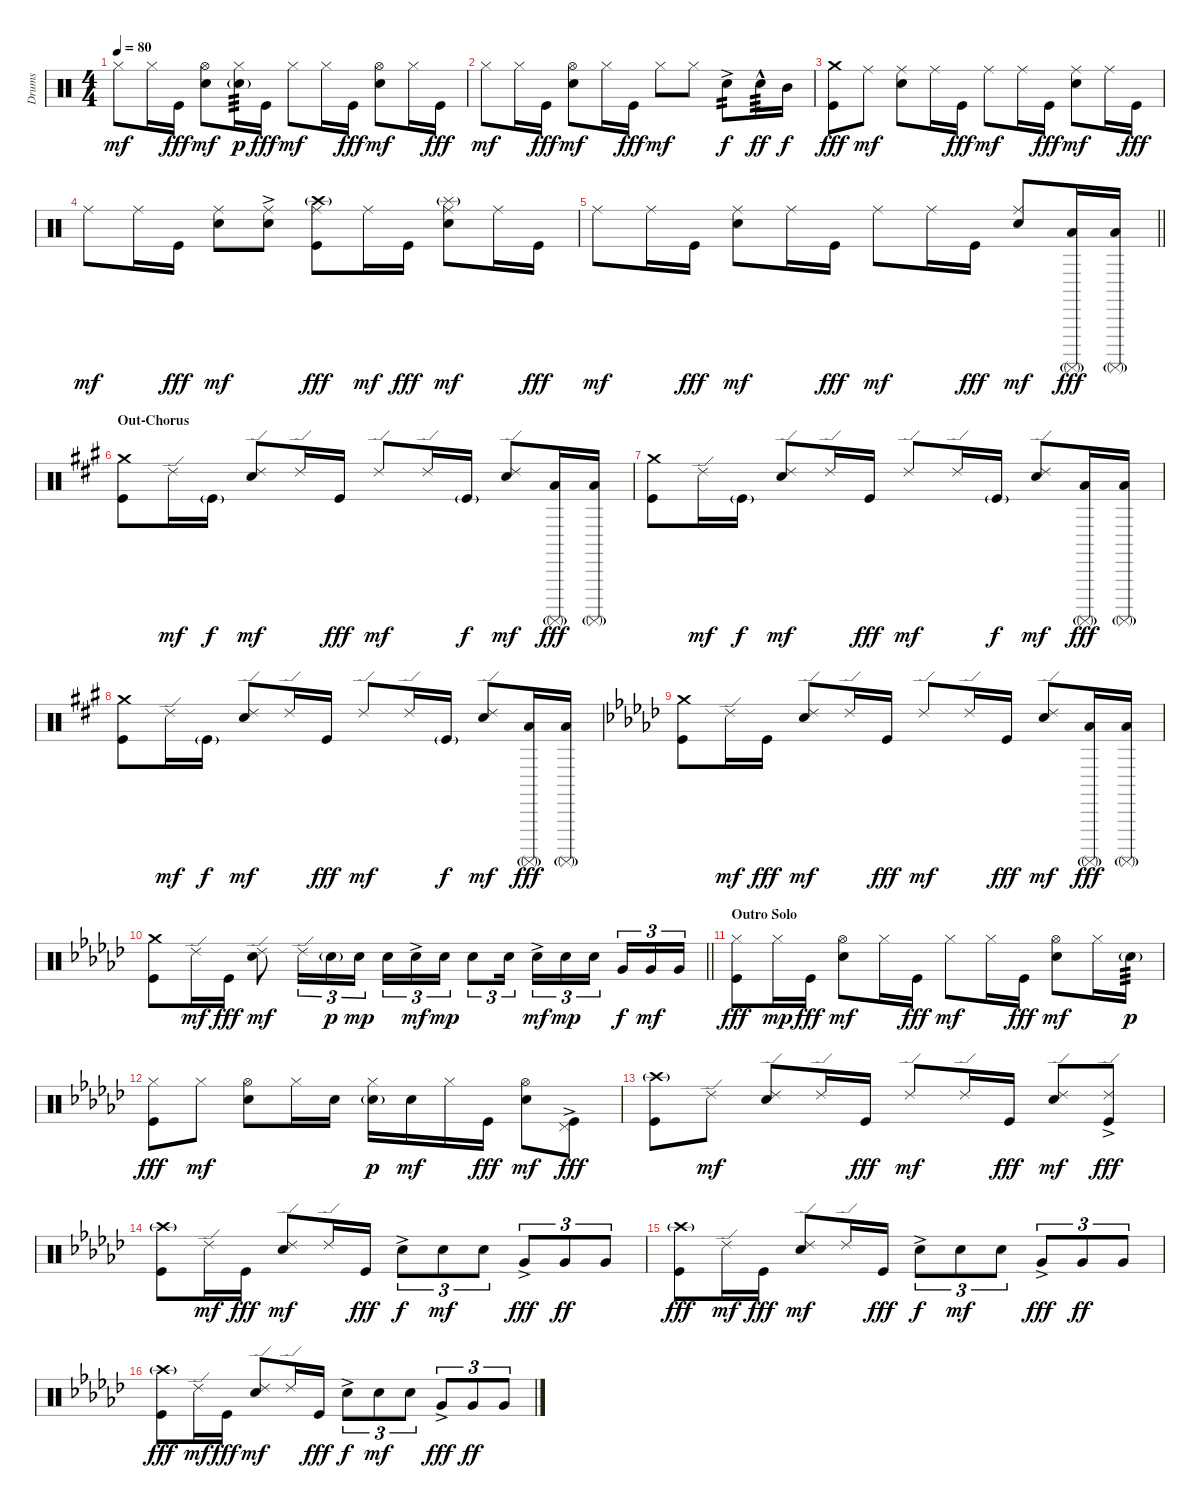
\track ("Drums" "Drums") {instrument percussion}
\staff {score}
\articulation defaults
\ts (4 4)
\tempo 80
\clef neutral
\ks c "Hi-Hat (closed)".8{dy mf} "Hi-Hat (closed)".16 "Kick (hit)".16{dy fff}
("Hi-Hat (open)" "Electric Snare (hit)").8{dy mf} ("Hi-Hat (closed)" "Electric Snare (hit)"{g}).16{tp 3 dy p} "Kick (hit)".16{dy fff} "Hi-Hat (closed)".8{dy mf} "Hi-Hat (closed)".16 "Kick (hit)".16{dy fff} ("Hi-Hat (open)" "Electric Snare (hit)").8{dy mf} "Hi-Hat (closed)".16 "Kick (hit)".16{dy fff} |
"Hi-Hat (closed)".8{dy mf} "Hi-Hat (closed)".16 "Kick (hit)".16{dy fff} ("Hi-Hat (open)" "Electric Snare (hit)").8{dy mf} "Hi-Hat (closed)".16 "Kick (hit)".16{dy fff} "Hi-Hat (closed)".8{dy mf} "Hi-Hat (closed)".8 "Electric Snare (hit)"{ac}.8{tp 2 dy f} "Electric Snare (hit)"{hac}.16{tp 3 dy ff} "Mid Tom (hit)".16{dy f} |
("Crash medium (hit)" "Kick (hit)").8{dy fff} "Ride (middle)".8{dy mf} ("Ride (middle)" "Electric Snare (hit)").8 "Ride (middle)".16 "Kick (hit)".16{dy fff} "Ride (middle)".8{dy mf} "Ride (middle)".16 "Kick (hit)".16{dy fff} ("Ride (middle)" "Electric Snare (hit)").8{dy mf} "Ride (middle)".16 "Kick (hit)".16{dy fff} |
"Ride (middle)".8{dy mf} "Ride (middle)".16 "Kick (hit)".16{dy fff} ("Ride (middle)" "Electric Snare (hit)").8{dy mf} ("Ride (middle)" "Electric Snare (hit)"{ac}).8 ("Ride (middle)" "Crash high (hit)"{g} "Kick (hit)").8{dy fff} "Ride (middle)".16{dy mf} "Kick (hit)".16{dy fff} ("Ride (middle)" "Splash (hit)"{g} "Electric Snare (hit)").8{dy mf} "Ride (middle)".16 "Kick (hit)".16{dy fff} |
\barLineRight lightlight "Ride (middle)".8{dy mf} "Ride (middle)".16 "Kick (hit)".16{dy fff}
("Ride (middle)" "Electric Snare (hit)").8{dy mf} "Ride (middle)".16 "Kick (hit)".16{dy fff} "Ride (middle)".8{dy mf} "Ride (middle)".16 "Kick (hit)".16{dy fff} ("Ride (middle)" "Electric Snare (hit)").8{dy mf} ("Surdo (mute)"{g} "Low Tom (hit)").16{dy fff} ("Surdo (mute)"{g} "Low Tom (hit)").16 |
\section ("" "Out-Chorus")
\ks a
("Crash medium (hit)" "Kick (hit)").8 "Ride (edge) 2".16{dy mf} "Kick (hit)"{g}.16{dy f} ("Ride (edge) 2" "Electric Snare (hit)").8{dy mf} "Ride (edge) 2".16 "Kick (hit)".16{dy fff} "Ride (edge) 2".8{dy mf} "Ride (edge) 2".16 "Kick (hit)"{g}.16{dy f} ("Ride (edge) 2" "Electric Snare (hit)").8{dy mf} ("Surdo (mute)"{g} "Low Tom (hit)").16{dy fff} ("Surdo (mute)"{g} "Low Tom (hit)").16 |
("Crash medium (hit)" "Kick (hit)").8 "Ride (edge) 2".16{dy mf} "Kick (hit)"{g}.16{dy f} ("Ride (edge) 2" "Electric Snare (hit)").8{dy mf} "Ride (edge) 2".16 "Kick (hit)".16{dy fff} "Ride (edge) 2".8{dy mf} "Ride (edge) 2".16 "Kick (hit)"{g}.16{dy f} ("Ride (edge) 2" "Electric Snare (hit)").8{dy mf} ("Surdo (mute)"{g} "Low Tom (hit)").16{dy fff} ("Surdo (mute)"{g} "Low Tom (hit)").16 |
("Crash medium (hit)" "Kick (hit)").8 "Ride (edge) 2".16{dy mf} "Kick (hit)"{g}.16{dy f} ("Ride (edge) 2" "Electric Snare (hit)").8{dy mf} "Ride (edge) 2".16 "Kick (hit)".16{dy fff} "Ride (edge) 2".8{dy mf} "Ride (edge) 2".16 "Kick (hit)"{g}.16{dy f} ("Ride (edge) 2" "Electric Snare (hit)").8{dy mf} ("Surdo (mute)"{g} "Low Tom (hit)").16{dy fff} ("Surdo (mute)"{g} "Low Tom (hit)").16 |
\ks gb
("Crash medium (hit)" "Kick (hit)").8 "Ride (edge) 2".16{dy mf} "Kick (hit)".16{dy fff} ("Ride (edge) 2" "Electric Snare (hit)").8{dy mf} "Ride (edge) 2".16 "Kick (hit)".16{dy fff} "Ride (edge) 2".8{dy mf} "Ride (edge) 2".16 "Kick (hit)".16{dy fff} ("Ride (edge) 2" "Electric Snare (hit)").8{dy mf} ("Surdo (mute)"{g} "Low Tom (hit)").16{dy fff} ("Surdo (mute)"{g} "Low Tom (hit)").16 |
\barLineRight lightlight
("Crash medium (hit)" "Kick (hit)").8 "Ride (edge) 2".16{dy mf} "Kick (hit)".16{dy fff} ("Ride (edge) 2" "Electric Snare (hit)").8{dy mf} "Ride (edge) 2".16{tu (3 2)} "Electric Snare (hit)"{g}.16{tu (3 2) dy p} "Electric Snare (hit)".16{tu (3 2) dy mp} "Electric Snare (hit)".16{tu (3 2)} "Electric Snare (hit)"{ac}.16{tu (3 2) dy mf} "Electric Snare (hit)".16{tu (3 2) dy mp} "Electric Snare (hit)".8{tu (3 2)} "Electric Snare (hit)".16{tu (3 2)} "Electric Snare (hit)"{ac}.16{tu (3 2) dy mf} "Electric Snare (hit)".16{tu (3 2) dy mp} "Electric Snare (hit)".16{tu (3 2) beam splitsecondary} "Very Low Tom (hit)".16{tu (3 2) dy f} "Very Low Tom (hit)".16{tu (3 2) dy mf} "Very Low Tom (hit)".16{tu (3 2)} |
\section ("" "Outro Solo")
("Hi-Hat (closed)" "Kick (hit)").8{dy fff} "Hi-Hat (closed)".16{dy mp} "Kick (hit)".16{dy fff} ("Hi-Hat (open)" "Electric Snare (hit)").8{dy mf} "Hi-Hat (closed)".16 "Kick (hit)".16{dy fff} "Hi-Hat (closed)".8{dy mf} "Hi-Hat (closed)".16 "Kick (hit)".16{dy fff} ("Hi-Hat (open)" "Electric Snare (hit)").8{dy mf} "Hi-Hat (closed)".16 "Electric Snare (hit)"{g}.16{tp 3 dy p} |
("Hi-Hat (closed)" "Kick (hit)").8{dy fff} "Hi-Hat (closed)".8{dy mf} ("Hi-Hat (open)" "Electric Snare (hit)").8 "Hi-Hat (closed)".16 "Electric Snare (hit)".16 ("Hi-Hat (closed)" "Electric Snare (hit)"{g}).16{dy p} "Electric Snare (hit)".16{dy mf} "Hi-Hat (closed)".16 "Kick (hit)".16{dy fff} ("Hi-Hat (open)" "Electric Snare (hit)").8{dy mf} ("Pedal Hi-Hat (hit)"{ac} "Kick (hit)").8{dy fff} |
("Crash high (hit)"{g} "Kick (hit)").8 "Ride (edge) 2".8{dy mf} ("Ride (edge) 2" "Electric Snare (hit)").8 "Ride (edge) 2".16 "Kick (hit)".16{dy fff} "Ride (edge) 2".8{dy mf} "Ride (edge) 2".16 "Kick (hit)".16{dy fff} ("Ride (edge) 2" "Electric Snare (hit)").8{dy mf} ("Ride (edge) 2"{ac} "Kick (hit)").8{dy fff} |
("Crash high (hit)"{g} "Kick (hit)").8 "Ride (edge) 2".16{dy mf} "Kick (hit)".16{dy fff} ("Ride (edge) 2" "Electric Snare (hit)").8{dy mf} "Ride (edge) 2".16 "Kick (hit)".16{dy fff} "Electric Snare (hit)"{ac}.8{tu (3 2) dy f} "Electric Snare (hit)".8{tu (3 2) dy mf} "Electric Snare (hit)".8{tu (3 2)} "Very Low Tom (hit)"{ac}.8{tu (3 2) dy fff} "Very Low Tom (hit)".8{tu (3 2) dy ff} "Very Low Tom (hit)".8{tu (3 2)} |
("Crash high (hit)"{g} "Kick (hit)").8{dy fff} "Ride (edge) 2".16{dy mf} "Kick (hit)".16{dy fff} ("Ride (edge) 2" "Electric Snare (hit)").8{dy mf} "Ride (edge) 2".16 "Kick (hit)".16{dy fff} "Electric Snare (hit)"{ac}.8{tu (3 2) dy f} "Electric Snare (hit)".8{tu (3 2) dy mf} "Electric Snare (hit)".8{tu (3 2)} "Very Low Tom (hit)"{ac}.8{tu (3 2) dy fff} "Very Low Tom (hit)".8{tu (3 2) dy ff} "Very Low Tom (hit)".8{tu (3 2)} |
("Crash high (hit)"{g} "Kick (hit)").8{dy fff} "Ride (edge) 2".16{dy mf} "Kick (hit)".16{dy fff} ("Ride (edge) 2" "Electric Snare (hit)").8{dy mf} "Ride (edge) 2".16 "Kick (hit)".16{dy fff} "Electric Snare (hit)"{ac}.8{tu (3 2) dy f} "Electric Snare (hit)".8{tu (3 2) dy mf} "Electric Snare (hit)".8{tu (3 2)} "Very Low Tom (hit)"{ac}.8{tu (3 2) dy fff} "Very Low Tom (hit)".8{tu (3 2) dy ff} "Very Low Tom (hit)".8{tu (3 2)}
